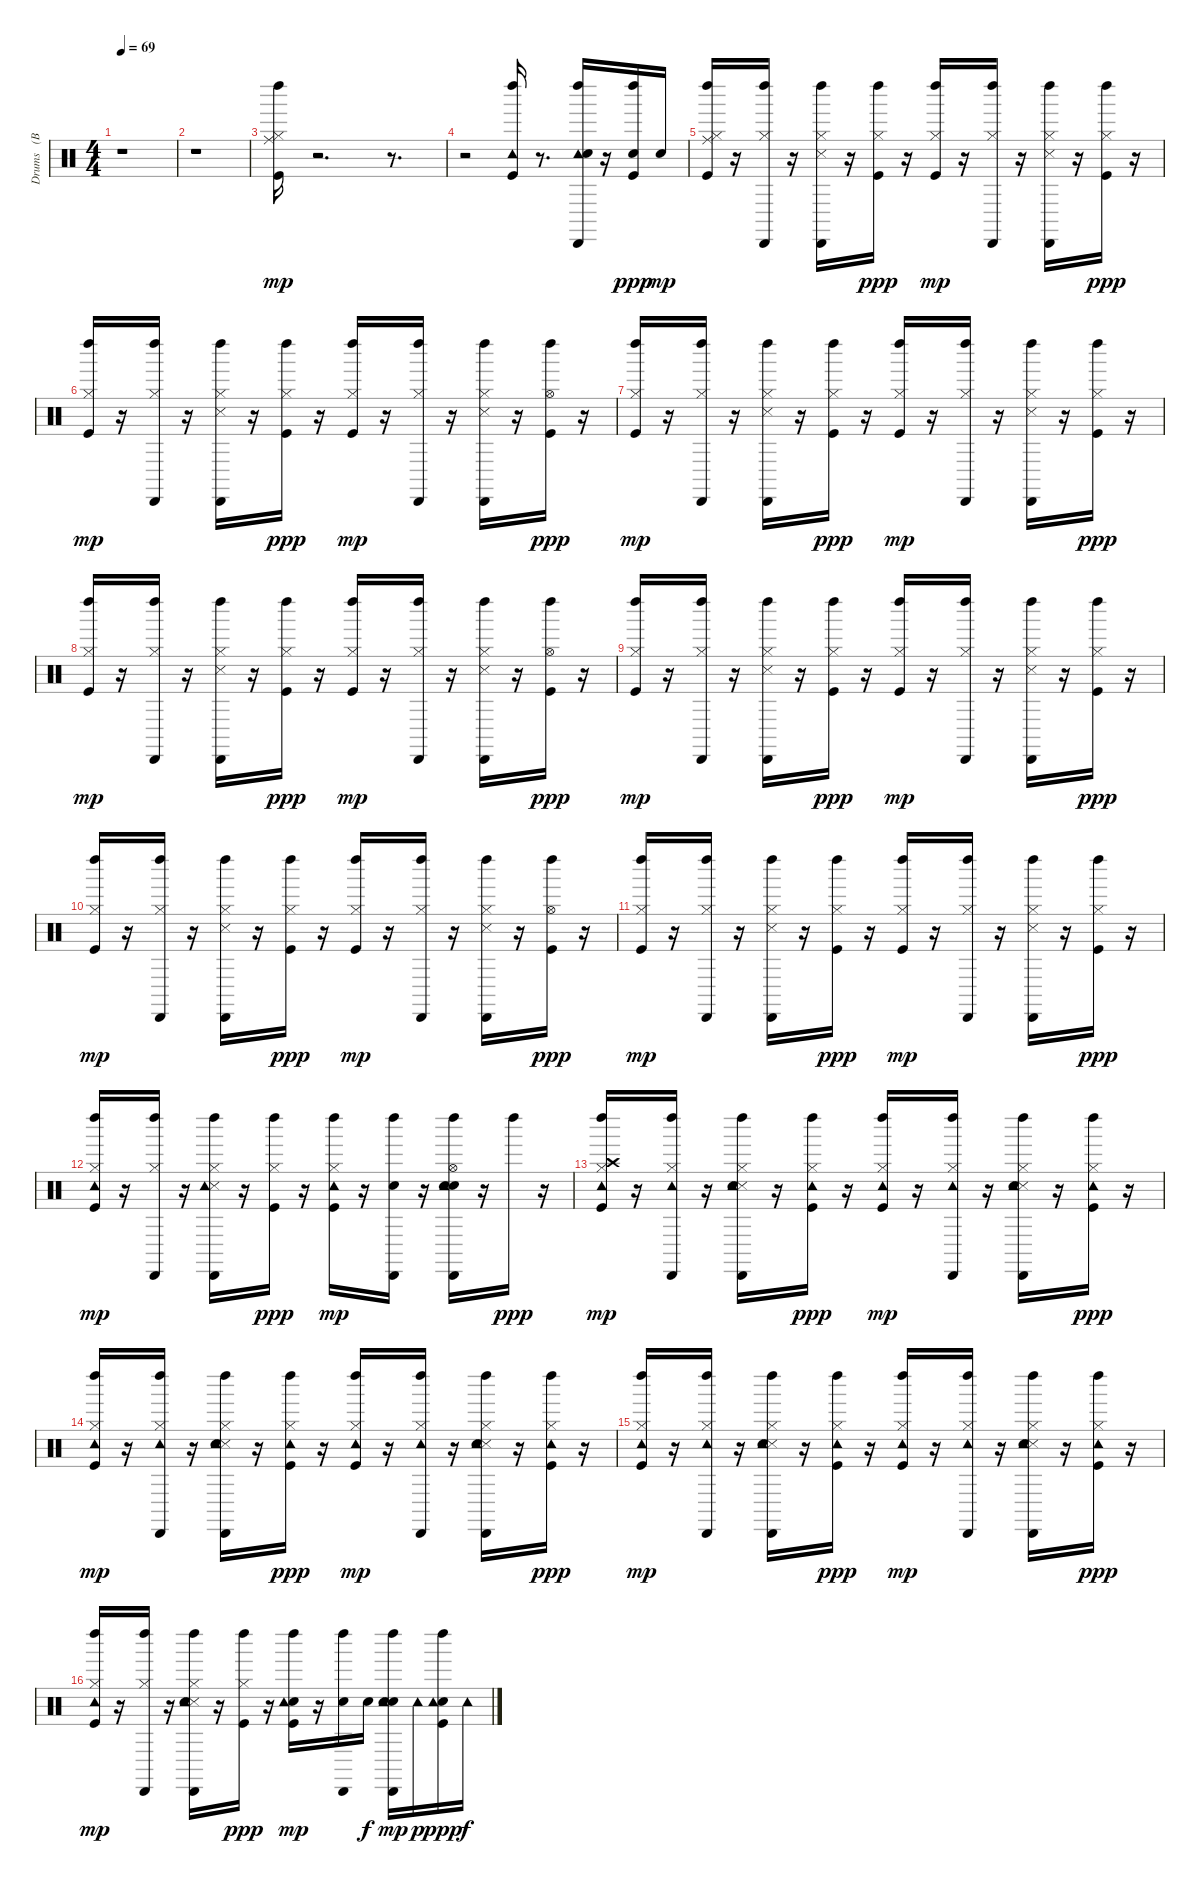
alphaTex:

\track ("Drums   (BB)" "Drums   (B") {instrument percussion}
\staff {score}
\articulation defaults
\ts (4 4)
\tempo 69
\clef neutral
\ks c
r.1{dy mp} |
r.1 |
("Kick (hit)" "Hi-Hat (closed)" "Ride (middle)" "Left Maraca (hit)").16 r.2{d} r.8{d} |
r.2 ("Kick (hit)" "Tambourine (hit)" "Left Maraca (hit)").16 r.8{d} ("Tambourine (hit)" "Hand Clap (hit)" "Left Maraca (hit)" "Cabasa (hit)").16 r.16 ("Kick (hit)" "Snare (hit) 2" "Left Maraca (hit)").16{dy ppp} "Snare (hit) 2".16{dy mp} |
("Kick (hit)" "Hi-Hat (closed)" "Ride (middle)" "Left Maraca (hit)").16 r.16 ("Hi-Hat (closed)" "Left Maraca (hit)" "Cabasa (hit)").16 r.16 ("Hi-Hat (closed)" "Snare (side stick) 3" "Left Maraca (hit)" "Cabasa (hit)").16 r.16 ("Kick (hit)" "Hi-Hat (closed)" "Left Maraca (hit)").16{dy ppp} r.16 ("Kick (hit)" "Hi-Hat (closed)" "Left Maraca (hit)").16{dy mp} r.16 ("Hi-Hat (closed)" "Left Maraca (hit)" "Cabasa (hit)").16 r.16 ("Hi-Hat (closed)" "Snare (side stick) 3" "Left Maraca (hit)" "Cabasa (hit)").16 r.16 ("Kick (hit)" "Hi-Hat (closed)" "Left Maraca (hit)").16{dy ppp} r.16 |
("Kick (hit)" "Hi-Hat (closed)" "Left Maraca (hit)").16{dy mp} r.16 ("Hi-Hat (closed)" "Left Maraca (hit)" "Cabasa (hit)").16 r.16 ("Hi-Hat (closed)" "Snare (side stick) 3" "Left Maraca (hit)" "Cabasa (hit)").16 r.16 ("Kick (hit)" "Hi-Hat (closed)" "Left Maraca (hit)").16{dy ppp} r.16 ("Kick (hit)" "Hi-Hat (closed)" "Left Maraca (hit)").16{dy mp} r.16 ("Hi-Hat (closed)" "Left Maraca (hit)" "Cabasa (hit)").16 r.16 ("Hi-Hat (closed)" "Snare (side stick) 3" "Left Maraca (hit)" "Cabasa (hit)").16 r.16 ("Kick (hit)" "Hi-Hat (open)" "Left Maraca (hit)").16{dy ppp} r.16 |
("Kick (hit)" "Hi-Hat (closed)" "Left Maraca (hit)").16{dy mp} r.16 ("Hi-Hat (closed)" "Left Maraca (hit)" "Cabasa (hit)").16 r.16 ("Hi-Hat (closed)" "Snare (side stick) 3" "Left Maraca (hit)" "Cabasa (hit)").16 r.16 ("Kick (hit)" "Hi-Hat (closed)" "Left Maraca (hit)").16{dy ppp} r.16 ("Kick (hit)" "Hi-Hat (closed)" "Left Maraca (hit)").16{dy mp} r.16 ("Hi-Hat (closed)" "Left Maraca (hit)" "Cabasa (hit)").16 r.16 ("Hi-Hat (closed)" "Snare (side stick) 3" "Left Maraca (hit)" "Cabasa (hit)").16 r.16 ("Kick (hit)" "Hi-Hat (closed)" "Left Maraca (hit)").16{dy ppp} r.16 |
("Kick (hit)" "Hi-Hat (closed)" "Left Maraca (hit)").16{dy mp} r.16 ("Hi-Hat (closed)" "Left Maraca (hit)" "Cabasa (hit)").16 r.16 ("Hi-Hat (closed)" "Snare (side stick) 3" "Left Maraca (hit)" "Cabasa (hit)").16 r.16 ("Kick (hit)" "Hi-Hat (closed)" "Left Maraca (hit)").16{dy ppp} r.16 ("Kick (hit)" "Hi-Hat (closed)" "Left Maraca (hit)").16{dy mp} r.16 ("Hi-Hat (closed)" "Left Maraca (hit)" "Cabasa (hit)").16 r.16 ("Hi-Hat (closed)" "Snare (side stick) 3" "Left Maraca (hit)" "Cabasa (hit)").16 r.16 ("Kick (hit)" "Hi-Hat (open)" "Left Maraca (hit)").16{dy ppp} r.16 |
("Kick (hit)" "Hi-Hat (closed)" "Left Maraca (hit)").16{dy mp} r.16 ("Hi-Hat (closed)" "Left Maraca (hit)" "Cabasa (hit)").16 r.16 ("Hi-Hat (closed)" "Snare (side stick) 3" "Left Maraca (hit)" "Cabasa (hit)").16 r.16 ("Kick (hit)" "Hi-Hat (closed)" "Left Maraca (hit)").16{dy ppp} r.16 ("Kick (hit)" "Hi-Hat (closed)" "Left Maraca (hit)").16{dy mp} r.16 ("Hi-Hat (closed)" "Left Maraca (hit)" "Cabasa (hit)").16 r.16 ("Hi-Hat (closed)" "Snare (side stick) 3" "Left Maraca (hit)" "Cabasa (hit)").16 r.16 ("Kick (hit)" "Hi-Hat (closed)" "Left Maraca (hit)").16{dy ppp} r.16 |
("Kick (hit)" "Hi-Hat (closed)" "Left Maraca (hit)").16{dy mp} r.16 ("Hi-Hat (closed)" "Left Maraca (hit)" "Cabasa (hit)").16 r.16 ("Hi-Hat (closed)" "Snare (side stick) 3" "Left Maraca (hit)" "Cabasa (hit)").16 r.16 ("Kick (hit)" "Hi-Hat (closed)" "Left Maraca (hit)").16{dy ppp} r.16 ("Kick (hit)" "Hi-Hat (closed)" "Left Maraca (hit)").16{dy mp} r.16 ("Hi-Hat (closed)" "Left Maraca (hit)" "Cabasa (hit)").16 r.16 ("Hi-Hat (closed)" "Snare (side stick) 3" "Left Maraca (hit)" "Cabasa (hit)").16 r.16 ("Kick (hit)" "Hi-Hat (open)" "Left Maraca (hit)").16{dy ppp} r.16 |
("Kick (hit)" "Hi-Hat (closed)" "Left Maraca (hit)").16{dy mp} r.16 ("Hi-Hat (closed)" "Left Maraca (hit)" "Cabasa (hit)").16 r.16 ("Hi-Hat (closed)" "Snare (side stick) 3" "Left Maraca (hit)" "Cabasa (hit)").16 r.16 ("Kick (hit)" "Hi-Hat (closed)" "Left Maraca (hit)").16{dy ppp} r.16 ("Kick (hit)" "Hi-Hat (closed)" "Left Maraca (hit)").16{dy mp} r.16 ("Hi-Hat (closed)" "Left Maraca (hit)" "Cabasa (hit)").16 r.16 ("Hi-Hat (closed)" "Snare (side stick) 3" "Left Maraca (hit)" "Cabasa (hit)").16 r.16 ("Kick (hit)" "Hi-Hat (closed)" "Left Maraca (hit)").16{dy ppp} r.16 |
("Kick (hit)" "Hi-Hat (closed)" "Tambourine (hit)" "Left Maraca (hit)").16{dy mp} r.16 ("Hi-Hat (closed)" "Left Maraca (hit)" "Cabasa (hit)").16 r.16 ("Hi-Hat (closed)" "Snare (side stick) 3" "Tambourine (hit)" "Left Maraca (hit)" "Cabasa (hit)").16 r.16 ("Kick (hit)" "Hi-Hat (closed)" "Left Maraca (hit)").16{dy ppp} r.16 ("Kick (hit)" "Hi-Hat (closed)" "Tambourine (hit)" "Left Maraca (hit)").16{dy mp} r.16 ("Snare (hit) 2" "Left Maraca (hit)" "Cabasa (hit)").16 r.16 ("Snare (hit) 2" "Hi-Hat (open)" "Tambourine (hit)" "Hand Clap (hit)" "Left Maraca (hit)" "Cabasa (hit)").16 r.16 "Left Maraca (hit)".16{dy ppp} r.16 |
("Kick (hit)" "Hi-Hat (closed)" "Crash high (hit)" "Tambourine (hit)" "Left Maraca (hit)").16{dy mp} r.16 ("Hi-Hat (closed)" "Tambourine (hit)" "Left Maraca (hit)" "Cabasa (hit)").16 r.16 ("Hi-Hat (closed)" "Snare (side stick) 3" "Tambourine (hit)" "Hand Clap (hit)" "Left Maraca (hit)" "Cabasa (hit)").16 r.16 ("Kick (hit)" "Hi-Hat (closed)" "Tambourine (hit)" "Left Maraca (hit)").16{dy ppp} r.16 ("Kick (hit)" "Hi-Hat (closed)" "Tambourine (hit)" "Left Maraca (hit)").16{dy mp} r.16 ("Hi-Hat (closed)" "Tambourine (hit)" "Left Maraca (hit)" "Cabasa (hit)").16 r.16 ("Hi-Hat (closed)" "Snare (side stick) 3" "Tambourine (hit)" "Hand Clap (hit)" "Left Maraca (hit)" "Cabasa (hit)").16 r.16 ("Kick (hit)" "Hi-Hat (closed)" "Tambourine (hit)" "Left Maraca (hit)").16{dy ppp} r.16 |
("Kick (hit)" "Hi-Hat (closed)" "Tambourine (hit)" "Left Maraca (hit)").16{dy mp} r.16 ("Hi-Hat (closed)" "Tambourine (hit)" "Left Maraca (hit)" "Cabasa (hit)").16 r.16 ("Hi-Hat (closed)" "Snare (side stick) 3" "Tambourine (hit)" "Hand Clap (hit)" "Left Maraca (hit)" "Cabasa (hit)").16 r.16 ("Kick (hit)" "Hi-Hat (closed)" "Tambourine (hit)" "Left Maraca (hit)").16{dy ppp} r.16 ("Kick (hit)" "Hi-Hat (closed)" "Tambourine (hit)" "Left Maraca (hit)").16{dy mp} r.16 ("Hi-Hat (closed)" "Tambourine (hit)" "Left Maraca (hit)" "Cabasa (hit)").16 r.16 ("Hi-Hat (closed)" "Snare (side stick) 3" "Tambourine (hit)" "Hand Clap (hit)" "Left Maraca (hit)" "Cabasa (hit)").16 r.16 ("Kick (hit)" "Hi-Hat (closed)" "Tambourine (hit)" "Left Maraca (hit)").16{dy ppp} r.16 |
("Kick (hit)" "Hi-Hat (closed)" "Tambourine (hit)" "Left Maraca (hit)").16{dy mp} r.16 ("Hi-Hat (closed)" "Tambourine (hit)" "Left Maraca (hit)" "Cabasa (hit)").16 r.16 ("Hi-Hat (closed)" "Snare (side stick) 3" "Tambourine (hit)" "Hand Clap (hit)" "Left Maraca (hit)" "Cabasa (hit)").16 r.16 ("Kick (hit)" "Hi-Hat (closed)" "Tambourine (hit)" "Left Maraca (hit)").16{dy ppp} r.16 ("Kick (hit)" "Hi-Hat (closed)" "Tambourine (hit)" "Left Maraca (hit)").16{dy mp} r.16 ("Hi-Hat (closed)" "Tambourine (hit)" "Left Maraca (hit)" "Cabasa (hit)").16 r.16 ("Hi-Hat (closed)" "Snare (side stick) 3" "Tambourine (hit)" "Hand Clap (hit)" "Left Maraca (hit)" "Cabasa (hit)").16 r.16 ("Kick (hit)" "Hi-Hat (closed)" "Tambourine (hit)" "Left Maraca (hit)").16{dy ppp} r.16 |
("Kick (hit)" "Hi-Hat (closed)" "Tambourine (hit)" "Left Maraca (hit)").16{dy mp} r.16 ("Hi-Hat (closed)" "Left Maraca (hit)" "Cabasa (hit)").16 r.16 ("Hi-Hat (closed)" "Snare (side stick) 3" "Tambourine (hit)" "Hand Clap (hit)" "Left Maraca (hit)" "Cabasa (hit)").16 r.16 ("Kick (hit)" "Hi-Hat (closed)" "Left Maraca (hit)").16{dy ppp} r.16 ("Kick (hit)" "Snare (hit) 2" "Tambourine (hit)" "Left Maraca (hit)").16{dy mp} r.16 ("Snare (hit) 2" "Left Maraca (hit)" "Cabasa (hit)").16 "Snare (hit) 2".16{dy f} ("Snare (hit) 2" "Tambourine (hit)" "Hand Clap (hit)" "Left Maraca (hit)" "Cabasa (hit)").16{dy mp} "Tambourine (hit)".16{dy p} ("Kick (hit)" "Snare (hit) 2" "Tambourine (hit)" "Left Maraca (hit)").16{dy ppp} "Tambourine (hit)".16{dy f}
